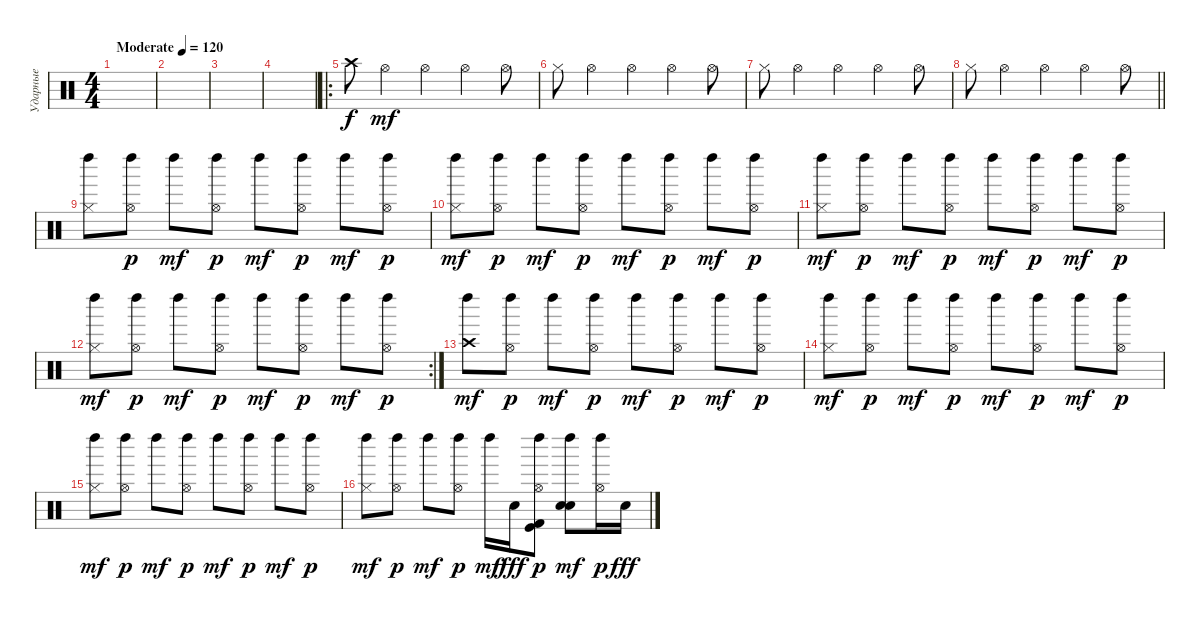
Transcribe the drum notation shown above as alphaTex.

\track ("Ударные" "Ударные") {instrument percussion}
\staff {score}
\articulation defaults
\ts (4 4)
\tempo (120 "Moderate")
\clef neutral
\ks c
|
|
|
|
\ro "Crash high (hit)".8 "Hi-Hat (open)".4{dy mf} "Hi-Hat (open)".4 "Hi-Hat (open)".4 "Hi-Hat (open)".8
|
"Hi-Hat (closed)".8 "Hi-Hat (open)".4 "Hi-Hat (open)".4 "Hi-Hat (open)".4 "Hi-Hat (open)".8 |
"Hi-Hat (closed)".8 "Hi-Hat (open)".4 "Hi-Hat (open)".4 "Hi-Hat (open)".4 "Hi-Hat (open)".8 |
\barLineRight lightlight "Hi-Hat (closed)".8 "Hi-Hat (open)".4 "Hi-Hat (open)".4 "Hi-Hat (open)".4 "Hi-Hat (open)".8
|
("Hi-Hat (closed)" "Left Maraca (hit)").8 ("Hi-Hat (open)" "Left Maraca (hit)").8{dy p} "Left Maraca (hit)".8{dy mf} ("Hi-Hat (open)" "Left Maraca (hit)").8{dy p} "Left Maraca (hit)".8{dy mf} ("Hi-Hat (open)" "Left Maraca (hit)").8{dy p} "Left Maraca (hit)".8{dy mf} ("Hi-Hat (open)" "Left Maraca (hit)").8{dy p} |
("Hi-Hat (closed)" "Left Maraca (hit)").8{dy mf} ("Hi-Hat (open)" "Left Maraca (hit)").8{dy p} "Left Maraca (hit)".8{dy mf} ("Hi-Hat (open)" "Left Maraca (hit)").8{dy p} "Left Maraca (hit)".8{dy mf} ("Hi-Hat (open)" "Left Maraca (hit)").8{dy p} "Left Maraca (hit)".8{dy mf} ("Hi-Hat (open)" "Left Maraca (hit)").8{dy p} |
("Hi-Hat (closed)" "Left Maraca (hit)").8{dy mf} ("Hi-Hat (open)" "Left Maraca (hit)").8{dy p} "Left Maraca (hit)".8{dy mf} ("Hi-Hat (open)" "Left Maraca (hit)").8{dy p} "Left Maraca (hit)".8{dy mf} ("Hi-Hat (open)" "Left Maraca (hit)").8{dy p} "Left Maraca (hit)".8{dy mf} ("Hi-Hat (open)" "Left Maraca (hit)").8{dy p} |
\rc 2
("Hi-Hat (closed)" "Left Maraca (hit)").8{dy mf} ("Hi-Hat (open)" "Left Maraca (hit)").8{dy p} "Left Maraca (hit)".8{dy mf} ("Hi-Hat (open)" "Left Maraca (hit)").8{dy p} "Left Maraca (hit)".8{dy mf} ("Hi-Hat (open)" "Left Maraca (hit)").8{dy p} "Left Maraca (hit)".8{dy mf} ("Hi-Hat (open)" "Left Maraca (hit)").8{dy p} |
("Crash high (hit)" "Left Maraca (hit)").8{dy mf} ("Hi-Hat (open)" "Left Maraca (hit)").8{dy p} "Left Maraca (hit)".8{dy mf} ("Hi-Hat (open)" "Left Maraca (hit)").8{dy p} "Left Maraca (hit)".8{dy mf} ("Hi-Hat (open)" "Left Maraca (hit)").8{dy p} "Left Maraca (hit)".8{dy mf} ("Hi-Hat (open)" "Left Maraca (hit)").8{dy p} |
("Hi-Hat (closed)" "Left Maraca (hit)").8{dy mf} ("Hi-Hat (open)" "Left Maraca (hit)").8{dy p} "Left Maraca (hit)".8{dy mf} ("Hi-Hat (open)" "Left Maraca (hit)").8{dy p} "Left Maraca (hit)".8{dy mf} ("Hi-Hat (open)" "Left Maraca (hit)").8{dy p} "Left Maraca (hit)".8{dy mf} ("Hi-Hat (open)" "Left Maraca (hit)").8{dy p} |
("Hi-Hat (closed)" "Left Maraca (hit)").8{dy mf} ("Hi-Hat (open)" "Left Maraca (hit)").8{dy p} "Left Maraca (hit)".8{dy mf} ("Hi-Hat (open)" "Left Maraca (hit)").8{dy p} "Left Maraca (hit)".8{dy mf} ("Hi-Hat (open)" "Left Maraca (hit)").8{dy p} "Left Maraca (hit)".8{dy mf} ("Hi-Hat (open)" "Left Maraca (hit)").8{dy p} |
("Hi-Hat (closed)" "Left Maraca (hit)").8{dy mf} ("Hi-Hat (open)" "Left Maraca (hit)").8{dy p} "Left Maraca (hit)".8{dy mf} ("Hi-Hat (open)" "Left Maraca (hit)").8{dy p} "Left Maraca (hit)".16{dy mf} "Snare (hit) 2".16{dy fff} ("Hi-Hat (open)" "Kick (hit)" "Kick (hit) 2" "Left Maraca (hit)").8{dy p} ("Snare (hit) 2" "Electric Snare (hit)" "Left Maraca (hit)").8{dy mf} ("Hi-Hat (open)" "Left Maraca (hit)").16{dy p} "Snare (hit) 2".16{dy fff}
